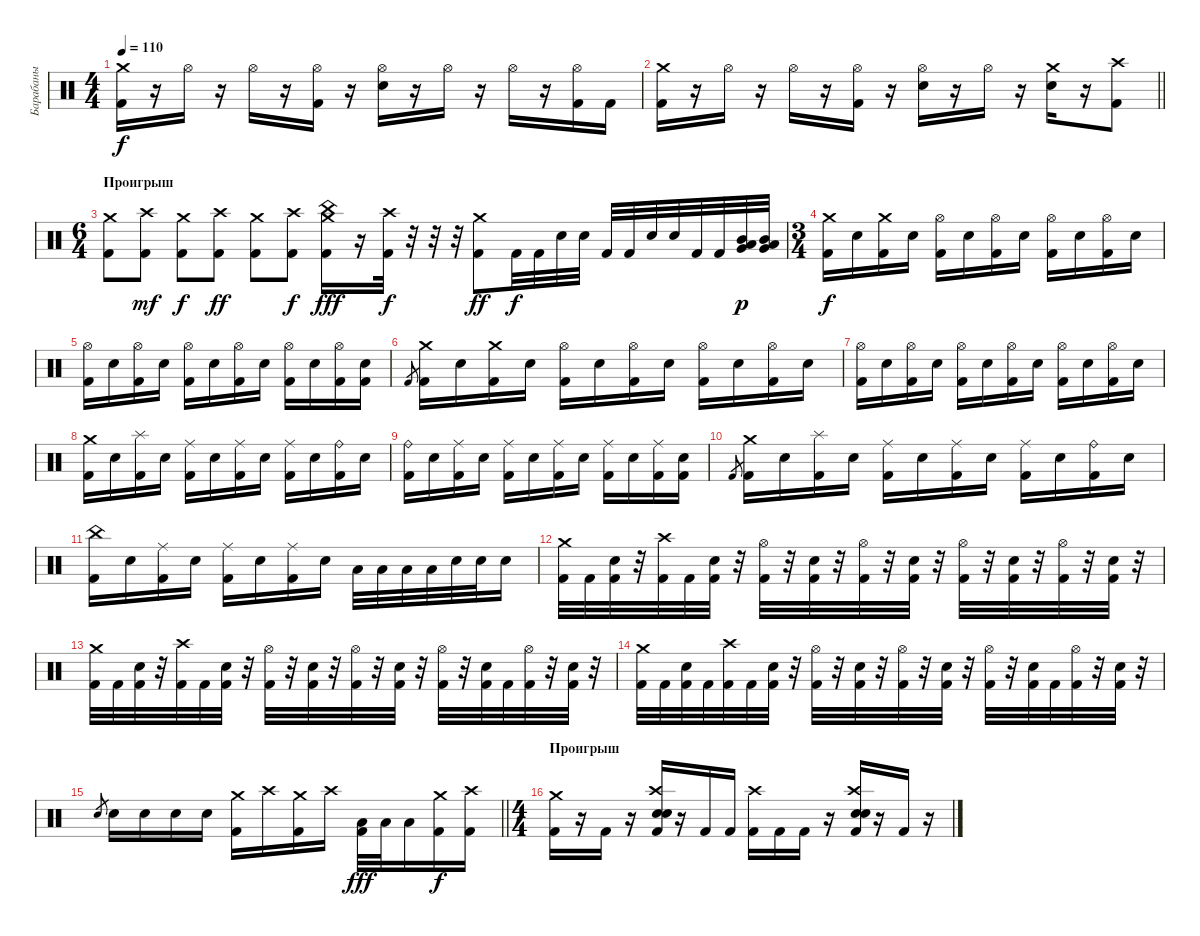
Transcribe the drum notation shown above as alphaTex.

\track ("Барабаны" "Барабаны") {instrument percussion}
\staff {score}
\articulation defaults
\ts (4 4)
\tempo 110
\clef neutral
\ks c
("Crash medium (hit)" "Kick (hit) 2").16{dy f} r.16 "Hi-Hat (open)".16 r.16 "Hi-Hat (open)".16 r.16 ("Hi-Hat (open)" "Kick (hit) 2").16 r.16 ("Hi-Hat (open)" "Electric Snare (hit)").16 r.16 "Hi-Hat (open)".16 r.16 "Hi-Hat (open)".16 r.16 ("Hi-Hat (open)" "Kick (hit) 2").16 "Kick (hit) 2".16 |
\barLineRight lightlight
("Crash medium (hit)" "Kick (hit) 2").16 r.16 "Hi-Hat (open)".16 r.16 "Hi-Hat (open)".16 r.16 ("Hi-Hat (open)" "Kick (hit) 2").16 r.16 ("Hi-Hat (open)" "Electric Snare (hit)").16 r.16 "Hi-Hat (open)".16 r.16 ("Crash medium (hit)" "Electric Snare (hit)").16 r.16 ("Crash high (hit)" "Kick (hit) 2").8 |
\ts (6 4)
\section ("" "Проигрыш")
("Crash medium (hit)" "Kick (hit) 2").8 ("Crash high (hit)" "Kick (hit) 2").8{dy mf} ("Crash medium (hit)" "Kick (hit) 2").8{dy f} ("Crash high (hit)" "Kick (hit) 2").8{dy ff} ("Crash medium (hit)" "Kick (hit) 2").8 ("Crash high (hit)" "Kick (hit) 2").8{dy f} ("Crash medium (hit)" "China (hit)" "Kick (hit) 2").16{dy fff} r.16 ("Crash high (hit)" "Kick (hit) 2").32{dy f} r.32 r.32 r.32 ("Crash medium (hit)" "Kick (hit) 2").8{dy ff} "Kick (hit) 2".32{dy f} "Kick (hit) 2".32 "Electric Snare (hit)".32 "Electric Snare (hit)".32 "Kick (hit) 2".32 "Kick (hit) 2".32 "Electric Snare (hit)".32 "Electric Snare (hit)".32 "Kick (hit) 2".32 "Kick (hit) 2".32 ("Very Low Tom (hit)" "Mid Tom (hit)" "Low Tom (hit)").32{dy p} ("Very Low Tom (hit)" "Mid Tom (hit)" "Low Tom (hit)").32 |
\ts (3 4)
("Crash medium (hit)" "Kick (hit) 2").16{dy f} "Electric Snare (hit)".16 ("Crash medium (hit)" "Kick (hit) 2").16 "Electric Snare (hit)".16 ("Hi-Hat (open)" "Kick (hit) 2").16 "Electric Snare (hit)".16 ("Hi-Hat (open)" "Kick (hit) 2").16 "Electric Snare (hit)".16 ("Hi-Hat (open)" "Kick (hit) 2").16 "Electric Snare (hit)".16 ("Hi-Hat (open)" "Kick (hit) 2").16 "Electric Snare (hit)".16 |
("Hi-Hat (open)" "Kick (hit) 2").16 "Electric Snare (hit)".16 ("Hi-Hat (open)" "Kick (hit) 2").16 "Electric Snare (hit)".16 ("Hi-Hat (open)" "Kick (hit) 2").16 "Electric Snare (hit)".16 ("Hi-Hat (open)" "Kick (hit) 2").16 "Electric Snare (hit)".16 ("Hi-Hat (open)" "Kick (hit) 2").16 "Electric Snare (hit)".16 ("Hi-Hat (open)" "Kick (hit) 2").16 ("Electric Snare (hit)" "Kick (hit) 2").16 |
"Kick (hit) 2".8{gr} ("Crash medium (hit)" "Kick (hit) 2").16 "Electric Snare (hit)".16 ("Crash medium (hit)" "Kick (hit) 2").16 "Electric Snare (hit)".16 ("Hi-Hat (open)" "Kick (hit) 2").16 "Electric Snare (hit)".16 ("Hi-Hat (open)" "Kick (hit) 2").16 "Electric Snare (hit)".16 ("Hi-Hat (open)" "Kick (hit) 2").16 "Electric Snare (hit)".16 ("Hi-Hat (open)" "Kick (hit) 2").16 "Electric Snare (hit)".16 |
("Hi-Hat (open)" "Kick (hit) 2").16 "Electric Snare (hit)".16 ("Hi-Hat (open)" "Kick (hit) 2").16 "Electric Snare (hit)".16 ("Hi-Hat (open)" "Kick (hit) 2").16 "Electric Snare (hit)".16 ("Hi-Hat (open)" "Kick (hit) 2").16 "Electric Snare (hit)".16 ("Hi-Hat (open)" "Kick (hit) 2").16 "Electric Snare (hit)".16 ("Hi-Hat (open)" "Kick (hit) 2").16 "Electric Snare (hit)".16 |
("Crash medium (hit)" "Kick (hit) 2").16 "Electric Snare (hit)".16 ("Splash (hit)" "Kick (hit) 2").16 "Electric Snare (hit)".16 ("Ride (middle)" "Kick (hit) 2").16 "Electric Snare (hit)".16 ("Ride (middle)" "Kick (hit) 2").16 "Electric Snare (hit)".16 ("Ride (middle)" "Kick (hit) 2").16 "Electric Snare (hit)".16 ("Ride (bell)" "Kick (hit) 2").16 "Electric Snare (hit)".16 |
("Ride (bell)" "Kick (hit) 2").16 "Electric Snare (hit)".16 ("Ride (middle)" "Kick (hit) 2").16 "Electric Snare (hit)".16 ("Ride (middle)" "Kick (hit) 2").16 "Electric Snare (hit)".16 ("Ride (middle)" "Kick (hit) 2").16 "Electric Snare (hit)".16 ("Ride (middle)" "Kick (hit) 2").16 "Electric Snare (hit)".16 ("Ride (middle)" "Kick (hit) 2").16 ("Electric Snare (hit)" "Kick (hit) 2").16 |
"Kick (hit) 2".8{gr} ("Crash medium (hit)" "Kick (hit) 2").16 "Electric Snare (hit)".16 ("Splash (hit)" "Kick (hit) 2").16 "Electric Snare (hit)".16 ("Ride (middle)" "Kick (hit) 2").16 "Electric Snare (hit)".16 ("Ride (middle)" "Kick (hit) 2").16 "Electric Snare (hit)".16 ("Ride (middle)" "Kick (hit) 2").16 "Electric Snare (hit)".16 ("Ride (bell)" "Kick (hit) 2").16 "Electric Snare (hit)".16 |
("China (hit)" "Kick (hit) 2").16 "Electric Snare (hit)".16 ("Ride (middle)" "Kick (hit) 2").16 "Electric Snare (hit)".16 ("Ride (middle)" "Kick (hit) 2").16 "Electric Snare (hit)".16 ("Ride (middle)" "Kick (hit) 2").16 "Electric Snare (hit)".16 "Low Tom (hit)".32 "Low Tom (hit)".32 "Low Tom (hit)".32 "Low Tom (hit)".32 "Electric Snare (hit)".32 "Electric Snare (hit)".32 "Electric Snare (hit)".16 |
("Crash medium (hit)" "Kick (hit) 2").32 "Kick (hit) 2".32 ("Electric Snare (hit)" "Kick (hit) 2").32 r.32 ("Crash high (hit)" "Kick (hit) 2").32 "Kick (hit) 2".32 ("Electric Snare (hit)" "Kick (hit) 2").32 r.32 ("Hi-Hat (open)" "Kick (hit) 2").32 r.32 ("Electric Snare (hit)" "Kick (hit) 2").32 r.32 ("Hi-Hat (open)" "Kick (hit) 2").32 r.32 ("Electric Snare (hit)" "Kick (hit) 2").32 r.32 ("Hi-Hat (open)" "Kick (hit) 2").32 r.32 ("Electric Snare (hit)" "Kick (hit) 2").32 r.32 ("Hi-Hat (open)" "Kick (hit) 2").32 r.32 ("Electric Snare (hit)" "Kick (hit) 2").32 r.32 |
("Crash medium (hit)" "Kick (hit) 2").32 "Kick (hit) 2".32 ("Electric Snare (hit)" "Kick (hit) 2").32 r.32 ("Crash high (hit)" "Kick (hit) 2").32 "Kick (hit) 2".32 ("Electric Snare (hit)" "Kick (hit) 2").32 r.32 ("Hi-Hat (open)" "Kick (hit) 2").32 r.32 ("Electric Snare (hit)" "Kick (hit) 2").32 r.32 ("Hi-Hat (open)" "Kick (hit) 2").32 r.32 ("Electric Snare (hit)" "Kick (hit) 2").32 r.32 ("Hi-Hat (open)" "Kick (hit) 2").32 r.32 ("Electric Snare (hit)" "Kick (hit) 2").32 "Kick (hit) 2".32 ("Hi-Hat (open)" "Kick (hit) 2").32 r.32 ("Electric Snare (hit)" "Kick (hit) 2").32 r.32 |
("Crash medium (hit)" "Kick (hit) 2").32 "Kick (hit) 2".32 ("Electric Snare (hit)" "Kick (hit) 2").32 "Kick (hit) 2".32 ("Crash high (hit)" "Kick (hit) 2").32 "Kick (hit) 2".32 ("Electric Snare (hit)" "Kick (hit) 2").32 r.32 ("Hi-Hat (open)" "Kick (hit) 2").32 r.32 ("Electric Snare (hit)" "Kick (hit) 2").32 r.32 ("Hi-Hat (open)" "Kick (hit) 2").32 r.32 ("Electric Snare (hit)" "Kick (hit) 2").32 r.32 ("Hi-Hat (open)" "Kick (hit) 2").32 r.32 ("Electric Snare (hit)" "Kick (hit) 2").32 "Kick (hit) 2".32 ("Hi-Hat (open)" "Kick (hit) 2").32 r.32 ("Electric Snare (hit)" "Kick (hit) 2").32 r.32 |
\barLineRight lightlight "Electric Snare (hit)".8{gr} "Electric Snare (hit)".16 "Electric Snare (hit)".16 "Electric Snare (hit)".16 "Electric Snare (hit)".16
("Crash medium (hit)" "Kick (hit) 2").16 "Crash high (hit)".16 ("Crash medium (hit)" "Kick (hit) 2").16 "Crash high (hit)".16 ("Low Tom (hit)" "Kick (hit) 2").32{dy fff} "Low Tom (hit)".32 "Low Tom (hit)".16 ("Crash medium (hit)" "Kick (hit) 2").16{dy f} ("Crash high (hit)" "Kick (hit) 2").16 |
\ts (4 4)
\section ("" "Проигрыш")
("Crash medium (hit)" "Kick (hit) 2").16 r.16 "Kick (hit) 2".16 r.16 ("Crash high (hit)" "Electric Snare (hit)" "Snare (hit) 2" "Kick (hit) 2").16 r.16 "Kick (hit) 2".16 "Kick (hit) 2".16 ("Crash high (hit)" "Kick (hit) 2").16 "Kick (hit) 2".16 "Kick (hit) 2".16 r.16 ("Crash high (hit)" "Snare (hit) 2" "Electric Snare (hit)" "Kick (hit) 2").16 r.16 "Kick (hit) 2".16 r.16
